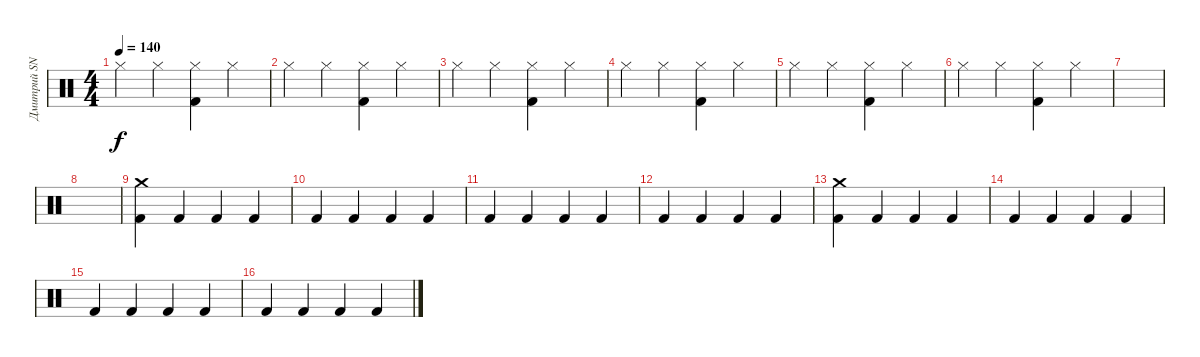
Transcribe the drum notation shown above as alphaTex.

\track ("Дмитрий SNAKE Хакимов" "Дмитрий SN") {instrument percussion}
\staff {score}
\articulation defaults
\ts (4 4)
\tempo 140
\clef neutral
\ks c "Hi-Hat (closed)".4{dy f} "Hi-Hat (closed)".4
("Hi-Hat (closed)" "Kick (hit) 2").4 "Hi-Hat (closed)".4 |
"Hi-Hat (closed)".4 "Hi-Hat (closed)".4 ("Hi-Hat (closed)" "Kick (hit) 2").4 "Hi-Hat (closed)".4 |
"Hi-Hat (closed)".4 "Hi-Hat (closed)".4 ("Hi-Hat (closed)" "Kick (hit) 2").4 "Hi-Hat (closed)".4 |
"Hi-Hat (closed)".4 "Hi-Hat (closed)".4 ("Hi-Hat (closed)" "Kick (hit) 2").4 "Hi-Hat (closed)".4 |
"Hi-Hat (closed)".4 "Hi-Hat (closed)".4 ("Hi-Hat (closed)" "Kick (hit) 2").4 "Hi-Hat (closed)".4 |
"Hi-Hat (closed)".4 "Hi-Hat (closed)".4 ("Hi-Hat (closed)" "Kick (hit) 2").4 "Hi-Hat (closed)".4 |
|
|
("Crash medium (hit)" "Kick (hit) 2").4 "Kick (hit) 2".4 "Kick (hit) 2".4 "Kick (hit) 2".4 |
"Kick (hit) 2".4 "Kick (hit) 2".4 "Kick (hit) 2".4 "Kick (hit) 2".4 |
"Kick (hit) 2".4 "Kick (hit) 2".4 "Kick (hit) 2".4 "Kick (hit) 2".4 |
"Kick (hit) 2".4 "Kick (hit) 2".4 "Kick (hit) 2".4 "Kick (hit) 2".4 |
("Crash medium (hit)" "Kick (hit) 2").4 "Kick (hit) 2".4 "Kick (hit) 2".4 "Kick (hit) 2".4 |
"Kick (hit) 2".4 "Kick (hit) 2".4 "Kick (hit) 2".4 "Kick (hit) 2".4 |
"Kick (hit) 2".4 "Kick (hit) 2".4 "Kick (hit) 2".4 "Kick (hit) 2".4 |
"Kick (hit) 2".4 "Kick (hit) 2".4 "Kick (hit) 2".4 "Kick (hit) 2".4
